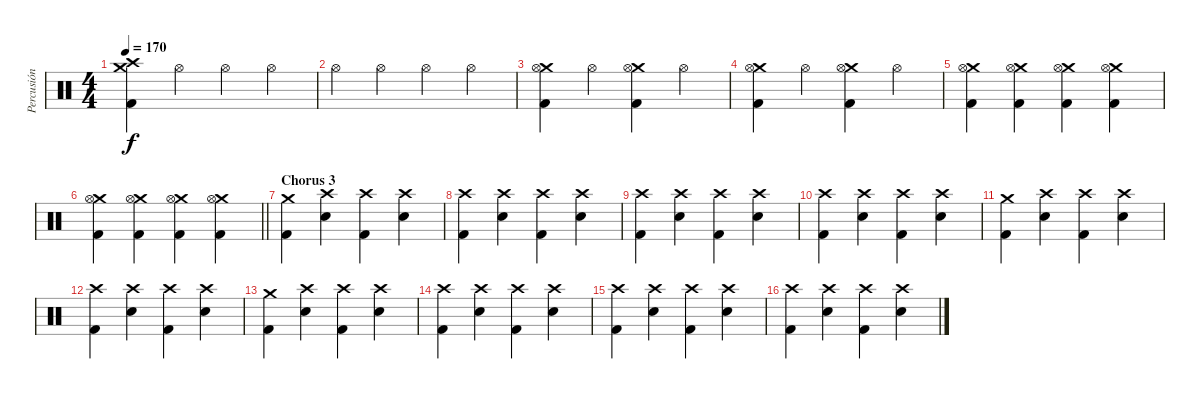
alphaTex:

\track ("Percusión" "Percusión") {instrument percussion}
\staff {score}
\articulation defaults
\ts (4 4)
\tempo 170
\clef neutral
\ks c
("Crash medium (hit)" "Crash high (hit)" "Kick (hit) 2").4{dy f} "Hi-Hat (open)".4 "Hi-Hat (open)".4 "Hi-Hat (open)".4 |
"Hi-Hat (open)".4 "Hi-Hat (open)".4 "Hi-Hat (open)".4 "Hi-Hat (open)".4 |
("Crash medium (hit)" "Hi-Hat (open)" "Kick (hit) 2").4 "Hi-Hat (open)".4 ("Crash medium (hit)" "Hi-Hat (open)" "Kick (hit) 2").4 "Hi-Hat (open)".4 |
("Crash medium (hit)" "Hi-Hat (open)" "Kick (hit) 2").4 "Hi-Hat (open)".4 ("Crash medium (hit)" "Hi-Hat (open)" "Kick (hit) 2").4 "Hi-Hat (open)".4 |
("Crash medium (hit)" "Hi-Hat (open)" "Kick (hit) 2").4 ("Crash medium (hit)" "Hi-Hat (open)" "Kick (hit) 2").4 ("Crash medium (hit)" "Hi-Hat (open)" "Kick (hit) 2").4 ("Crash medium (hit)" "Hi-Hat (open)" "Kick (hit) 2").4 |
\barLineRight lightlight
("Crash medium (hit)" "Hi-Hat (open)" "Kick (hit) 2").4 ("Crash medium (hit)" "Hi-Hat (open)" "Kick (hit) 2").4 ("Crash medium (hit)" "Hi-Hat (open)" "Kick (hit) 2").4 ("Crash medium (hit)" "Hi-Hat (open)" "Kick (hit) 2").4 |
\section ("" "Chorus 3")
("Crash medium (hit)" "Kick (hit) 2").4 ("Crash high (hit)" "Snare (hit) 2").4 ("Crash high (hit)" "Kick (hit) 2").4 ("Crash high (hit)" "Snare (hit) 2").4 |
("Crash high (hit)" "Kick (hit) 2").4 ("Crash high (hit)" "Snare (hit) 2").4 ("Crash high (hit)" "Kick (hit) 2").4 ("Crash high (hit)" "Snare (hit) 2").4 |
("Crash high (hit)" "Kick (hit) 2").4 ("Crash high (hit)" "Snare (hit) 2").4 ("Crash high (hit)" "Kick (hit) 2").4 ("Crash high (hit)" "Snare (hit) 2").4 |
("Crash high (hit)" "Kick (hit) 2").4 ("Crash high (hit)" "Snare (hit) 2").4 ("Crash high (hit)" "Kick (hit) 2").4 ("Crash high (hit)" "Snare (hit) 2").4 |
("Crash medium (hit)" "Kick (hit) 2").4 ("Crash high (hit)" "Snare (hit) 2").4 ("Crash high (hit)" "Kick (hit) 2").4 ("Crash high (hit)" "Snare (hit) 2").4 |
("Crash high (hit)" "Kick (hit) 2").4 ("Crash high (hit)" "Snare (hit) 2").4 ("Crash high (hit)" "Kick (hit) 2").4 ("Crash high (hit)" "Snare (hit) 2").4 |
("Crash medium (hit)" "Kick (hit) 2").4 ("Crash high (hit)" "Snare (hit) 2").4 ("Crash high (hit)" "Kick (hit) 2").4 ("Crash high (hit)" "Snare (hit) 2").4 |
("Crash high (hit)" "Kick (hit) 2").4 ("Crash high (hit)" "Snare (hit) 2").4 ("Crash high (hit)" "Kick (hit) 2").4 ("Crash high (hit)" "Snare (hit) 2").4 |
("Crash high (hit)" "Kick (hit) 2").4 ("Crash high (hit)" "Snare (hit) 2").4 ("Crash high (hit)" "Kick (hit) 2").4 ("Crash high (hit)" "Snare (hit) 2").4 |
("Crash high (hit)" "Kick (hit) 2").4 ("Crash high (hit)" "Snare (hit) 2").4 ("Crash high (hit)" "Kick (hit) 2").4 ("Crash high (hit)" "Snare (hit) 2").4
